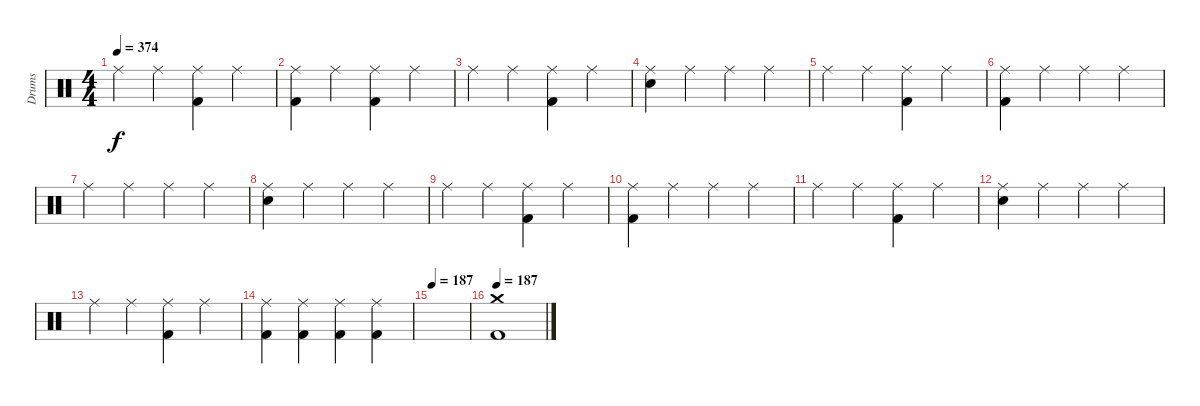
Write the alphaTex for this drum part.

\track ("Drums" "Drums") {instrument percussion}
\staff {score}
\articulation defaults
\ts (4 4)
\tempo 374
\clef neutral
\ks c "Ride (middle)".4{dy f} "Ride (middle)".4
("Ride (middle)" "Kick (hit) 2").4 "Ride (middle)".4 |
("Ride (middle)" "Kick (hit) 2").4 "Ride (middle)".4 ("Ride (middle)" "Kick (hit) 2").4 "Ride (middle)".4 |
"Ride (middle)".4 "Ride (middle)".4 ("Ride (middle)" "Kick (hit) 2").4 "Ride (middle)".4 |
("Ride (middle)" "Snare (hit) 2").4 "Ride (middle)".4 "Ride (middle)".4 "Ride (middle)".4 |
"Ride (middle)".4 "Ride (middle)".4 ("Ride (middle)" "Kick (hit) 2").4 "Ride (middle)".4 |
("Ride (middle)" "Kick (hit) 2").4 "Ride (middle)".4 "Ride (middle)".4 "Ride (middle)".4 |
"Ride (middle)".4 "Ride (middle)".4 "Ride (middle)".4 "Ride (middle)".4 |
("Ride (middle)" "Snare (hit) 2").4 "Ride (middle)".4 "Ride (middle)".4 "Ride (middle)".4 |
"Ride (middle)".4 "Ride (middle)".4 ("Ride (middle)" "Kick (hit) 2").4 "Ride (middle)".4 |
("Ride (middle)" "Kick (hit) 2").4 "Ride (middle)".4 "Ride (middle)".4 "Ride (middle)".4 |
"Ride (middle)".4 "Ride (middle)".4 ("Ride (middle)" "Kick (hit) 2").4 "Ride (middle)".4 |
("Ride (middle)" "Snare (hit) 2").4 "Ride (middle)".4 "Ride (middle)".4 "Ride (middle)".4 |
"Ride (middle)".4 "Ride (middle)".4 ("Ride (middle)" "Kick (hit) 2").4 "Ride (middle)".4 |
("Ride (middle)" "Kick (hit) 2").4 ("Ride (middle)" "Kick (hit) 2").4 ("Ride (middle)" "Kick (hit) 2").4 ("Ride (middle)" "Kick (hit) 2").4 |
\tempo 187
|
\tempo 187
("Crash medium (hit)" "Kick (hit) 2").1
